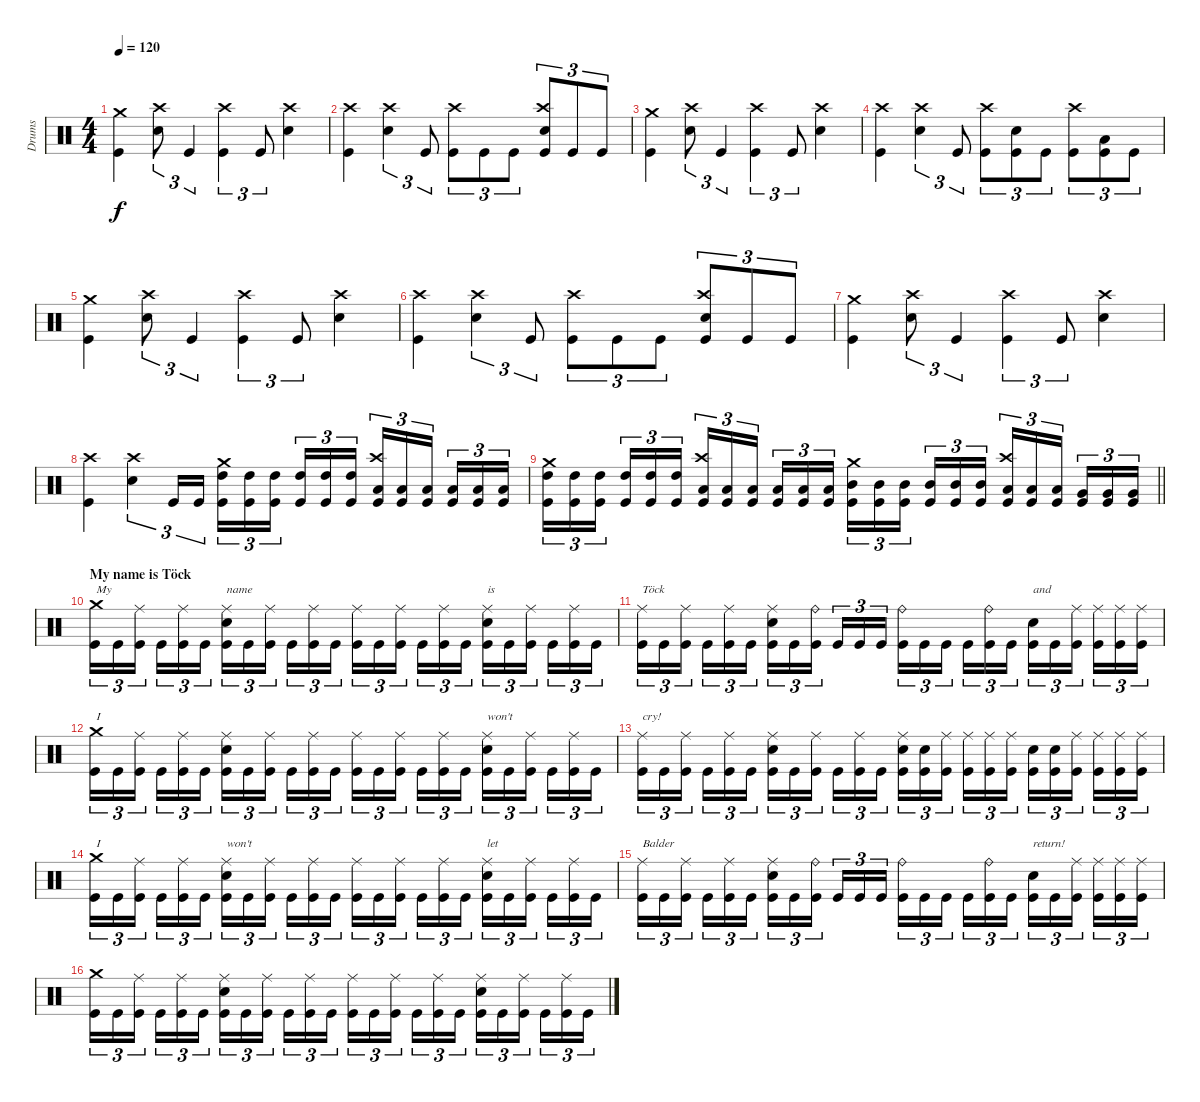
\track ("Drums" "Drums") {instrument percussion}
\staff {score}
\articulation defaults
\ts (4 4)
\tempo 120
\clef neutral
\ks c
("Crash medium (hit)" "Kick (hit)").4{dy f} ("Crash high (hit)" "Snare (hit) 2").8{tu (3 2)} "Kick (hit)".4{tu (3 2)} ("Crash high (hit)" "Kick (hit)").4{tu (3 2)} "Kick (hit)".8{tu (3 2)} ("Crash high (hit)" "Snare (hit) 2").4 |
("Crash high (hit)" "Kick (hit)").4 ("Crash high (hit)" "Snare (hit) 2").4{tu (3 2)} "Kick (hit)".8{tu (3 2)} ("Crash high (hit)" "Kick (hit)").8{tu (3 2)} "Kick (hit)".8{tu (3 2)} "Kick (hit)".8{tu (3 2)} ("Crash high (hit)" "Snare (hit) 2" "Kick (hit)").8{tu (3 2)} "Kick (hit)".8{tu (3 2)} "Kick (hit)".8{tu (3 2)} |
("Crash medium (hit)" "Kick (hit)").4 ("Crash high (hit)" "Snare (hit) 2").8{tu (3 2)} "Kick (hit)".4{tu (3 2)} ("Crash high (hit)" "Kick (hit)").4{tu (3 2)} "Kick (hit)".8{tu (3 2)} ("Crash high (hit)" "Snare (hit) 2").4 |
("Crash high (hit)" "Kick (hit)").4 ("Crash high (hit)" "Snare (hit) 2").4{tu (3 2)} "Kick (hit)".8{tu (3 2)} ("Crash high (hit)" "Kick (hit)").8{tu (3 2)} ("Snare (hit) 2" "Kick (hit)").8{tu (3 2)} "Kick (hit)".8{tu (3 2)} ("Crash high (hit)" "Kick (hit)").8{tu (3 2)} ("Low Tom (hit)" "Kick (hit)").8{tu (3 2)} "Kick (hit)".8{tu (3 2)} |
("Crash medium (hit)" "Kick (hit)").4 ("Crash high (hit)" "Snare (hit) 2").8{tu (3 2)} "Kick (hit)".4{tu (3 2)} ("Crash high (hit)" "Kick (hit)").4{tu (3 2)} "Kick (hit)".8{tu (3 2)} ("Crash high (hit)" "Snare (hit) 2").4 |
("Crash high (hit)" "Kick (hit)").4 ("Crash high (hit)" "Snare (hit) 2").4{tu (3 2)} "Kick (hit)".8{tu (3 2)} ("Crash high (hit)" "Kick (hit)").8{tu (3 2)} "Kick (hit)".8{tu (3 2)} "Kick (hit)".8{tu (3 2)} ("Crash high (hit)" "Snare (hit) 2" "Kick (hit)").8{tu (3 2)} "Kick (hit)".8{tu (3 2)} "Kick (hit)".8{tu (3 2)} |
("Crash medium (hit)" "Kick (hit)").4 ("Crash high (hit)" "Snare (hit) 2").8{tu (3 2)} "Kick (hit)".4{tu (3 2)} ("Crash high (hit)" "Kick (hit)").4{tu (3 2)} "Kick (hit)".8{tu (3 2)} ("Crash high (hit)" "Snare (hit) 2").4 |
("Crash high (hit)" "Kick (hit)").4 ("Crash high (hit)" "Snare (hit) 2").4{tu (3 2)} "Kick (hit)".16{tu (3 2)} "Kick (hit)".16{tu (3 2)} ("Crash medium (hit)" "High Tom (hit)" "Kick (hit)").16{tu (3 2)} ("High Tom (hit)" "Kick (hit)").16{tu (3 2)} ("High Tom (hit)" "Kick (hit)").16{tu (3 2) beam splitsecondary} ("High Tom (hit)" "Kick (hit)").16{tu (3 2)} ("High Tom (hit)" "Kick (hit)").16{tu (3 2)} ("High Tom (hit)" "Kick (hit)").16{tu (3 2)} ("Crash high (hit)" "Low Tom (hit)" "Kick (hit)").16{tu (3 2)} ("Low Tom (hit)" "Kick (hit)").16{tu (3 2)} ("Low Tom (hit)" "Kick (hit)").16{tu (3 2) beam splitsecondary} ("Low Tom (hit)" "Kick (hit)").16{tu (3 2)} ("Low Tom (hit)" "Kick (hit)").16{tu (3 2)} ("Low Tom (hit)" "Kick (hit)").16{tu (3 2)} |
\barLineRight lightlight
("Crash medium (hit)" "High Tom (hit)" "Kick (hit)").16{tu (3 2)} ("High Tom (hit)" "Kick (hit)").16{tu (3 2)} ("High Tom (hit)" "Kick (hit)").16{tu (3 2) beam splitsecondary} ("High Tom (hit)" "Kick (hit)").16{tu (3 2)} ("High Tom (hit)" "Kick (hit)").16{tu (3 2)} ("High Tom (hit)" "Kick (hit)").16{tu (3 2)} ("Crash high (hit)" "Low Tom (hit)" "Kick (hit)").16{tu (3 2)} ("Low Tom (hit)" "Kick (hit)").16{tu (3 2)} ("Low Tom (hit)" "Kick (hit)").16{tu (3 2) beam splitsecondary} ("Low Tom (hit)" "Kick (hit)").16{tu (3 2)} ("Low Tom (hit)" "Kick (hit)").16{tu (3 2)} ("Low Tom (hit)" "Kick (hit)").16{tu (3 2)} ("Crash medium (hit)" "Mid Tom (hit)" "Kick (hit)").16{tu (3 2)} ("Mid Tom (hit)" "Kick (hit)").16{tu (3 2)} ("Mid Tom (hit)" "Kick (hit)").16{tu (3 2) beam splitsecondary} ("Mid Tom (hit)" "Kick (hit)").16{tu (3 2)} ("Mid Tom (hit)" "Kick (hit)").16{tu (3 2)} ("Mid Tom (hit)" "Kick (hit)").16{tu (3 2)} ("Crash high (hit)" "Low Tom (hit)" "Kick (hit)").16{tu (3 2)} ("Low Tom (hit)" "Kick (hit)").16{tu (3 2)} ("Low Tom (hit)" "Kick (hit)").16{tu (3 2) beam splitsecondary} ("Very Low Tom (hit)" "Kick (hit)").16{tu (3 2)} ("Very Low Tom (hit)" "Kick (hit)").16{tu (3 2)} ("Very Low Tom (hit)" "Kick (hit)").16{tu (3 2)} |
\section ("" "My name is Töck")
("Crash medium (hit)" "Kick (hit)").16{tu (3 2) txt "My"} "Kick (hit)".16{tu (3 2)} ("Ride (middle)" "Kick (hit)").16{tu (3 2) beam splitsecondary} "Kick (hit)".16{tu (3 2)} ("Ride (middle)" "Kick (hit)").16{tu (3 2)} "Kick (hit)".16{tu (3 2)} ("Ride (middle)" "Snare (hit) 2" "Kick (hit)").16{tu (3 2) txt "name"} "Kick (hit)".16{tu (3 2)} ("Ride (middle)" "Kick (hit)").16{tu (3 2) beam splitsecondary} "Kick (hit)".16{tu (3 2)} ("Ride (middle)" "Kick (hit)").16{tu (3 2)} "Kick (hit)".16{tu (3 2)} ("Ride (middle)" "Kick (hit)").16{tu (3 2)} "Kick (hit)".16{tu (3 2)} ("Ride (middle)" "Kick (hit)").16{tu (3 2) beam splitsecondary} "Kick (hit)".16{tu (3 2)} ("Ride (middle)" "Kick (hit)").16{tu (3 2)} "Kick (hit)".16{tu (3 2)} ("Ride (middle)" "Snare (hit) 2" "Kick (hit)").16{tu (3 2) txt "is"} "Kick (hit)".16{tu (3 2)} ("Ride (middle)" "Kick (hit)").16{tu (3 2) beam splitsecondary} "Kick (hit)".16{tu (3 2)} ("Ride (middle)" "Kick (hit)").16{tu (3 2)} "Kick (hit)".16{tu (3 2)} |
("Ride (middle)" "Kick (hit)").16{tu (3 2) txt "Töck"} "Kick (hit)".16{tu (3 2)} ("Ride (middle)" "Kick (hit)").16{tu (3 2) beam splitsecondary} "Kick (hit)".16{tu (3 2)} ("Ride (middle)" "Kick (hit)").16{tu (3 2)} "Kick (hit)".16{tu (3 2)} ("Ride (middle)" "Snare (hit) 2" "Kick (hit)").16{tu (3 2)} "Kick (hit)".16{tu (3 2)} ("Ride (bell)" "Kick (hit)").16{tu (3 2) beam splitsecondary} "Kick (hit)".16{tu (3 2)} "Kick (hit)".16{tu (3 2)} "Kick (hit)".16{tu (3 2)} ("Ride (bell)" "Kick (hit)").16{tu (3 2)} "Kick (hit)".16{tu (3 2)} "Kick (hit)".16{tu (3 2) beam splitsecondary} "Kick (hit)".16{tu (3 2)} ("Ride (bell)" "Kick (hit)").16{tu (3 2)} "Kick (hit)".16{tu (3 2)} ("Snare (hit) 2" "Kick (hit)").16{tu (3 2) txt "and"} "Kick (hit)".16{tu (3 2)} ("Ride (middle)" "Kick (hit)").16{tu (3 2) beam splitsecondary} ("Ride (middle)" "Kick (hit)").16{tu (3 2)} ("Ride (middle)" "Kick (hit)").16{tu (3 2)} ("Ride (middle)" "Kick (hit)").16{tu (3 2)} |
("Crash medium (hit)" "Kick (hit)").16{tu (3 2) txt "I"} "Kick (hit)".16{tu (3 2)} ("Ride (middle)" "Kick (hit)").16{tu (3 2) beam splitsecondary} "Kick (hit)".16{tu (3 2)} ("Ride (middle)" "Kick (hit)").16{tu (3 2)} "Kick (hit)".16{tu (3 2)} ("Ride (middle)" "Snare (hit) 2" "Kick (hit)").16{tu (3 2)} "Kick (hit)".16{tu (3 2)} ("Ride (middle)" "Kick (hit)").16{tu (3 2) beam splitsecondary} "Kick (hit)".16{tu (3 2)} ("Ride (middle)" "Kick (hit)").16{tu (3 2)} "Kick (hit)".16{tu (3 2)} ("Ride (middle)" "Kick (hit)").16{tu (3 2)} "Kick (hit)".16{tu (3 2)} ("Ride (middle)" "Kick (hit)").16{tu (3 2) beam splitsecondary} "Kick (hit)".16{tu (3 2)} ("Ride (middle)" "Kick (hit)").16{tu (3 2)} "Kick (hit)".16{tu (3 2)} ("Ride (middle)" "Snare (hit) 2" "Kick (hit)").16{tu (3 2) txt "won't"} "Kick (hit)".16{tu (3 2)} ("Ride (middle)" "Kick (hit)").16{tu (3 2) beam splitsecondary} "Kick (hit)".16{tu (3 2)} ("Ride (middle)" "Kick (hit)").16{tu (3 2)} "Kick (hit)".16{tu (3 2)} |
("Ride (middle)" "Kick (hit)").16{tu (3 2) txt "cry!"} "Kick (hit)".16{tu (3 2)} ("Ride (middle)" "Kick (hit)").16{tu (3 2) beam splitsecondary} "Kick (hit)".16{tu (3 2)} ("Ride (middle)" "Kick (hit)").16{tu (3 2)} "Kick (hit)".16{tu (3 2)} ("Ride (middle)" "Snare (hit) 2" "Kick (hit)").16{tu (3 2)} "Kick (hit)".16{tu (3 2)} ("Ride (middle)" "Kick (hit)").16{tu (3 2) beam splitsecondary} "Kick (hit)".16{tu (3 2)} ("Ride (middle)" "Kick (hit)").16{tu (3 2)} "Kick (hit)".16{tu (3 2)} ("Ride (middle)" "Snare (hit) 2" "Kick (hit)").16{tu (3 2)} ("Snare (hit) 2" "Kick (hit)").16{tu (3 2)} ("Ride (middle)" "Kick (hit)").16{tu (3 2) beam splitsecondary} ("Ride (middle)" "Kick (hit)").16{tu (3 2)} ("Ride (middle)" "Kick (hit)").16{tu (3 2)} ("Ride (middle)" "Kick (hit)").16{tu (3 2)} ("Snare (hit) 2" "Kick (hit)").16{tu (3 2)} ("Snare (hit) 2" "Kick (hit)").16{tu (3 2)} ("Ride (middle)" "Kick (hit)").16{tu (3 2) beam splitsecondary} ("Ride (middle)" "Kick (hit)").16{tu (3 2)} ("Ride (middle)" "Kick (hit)").16{tu (3 2)} ("Ride (middle)" "Kick (hit)").16{tu (3 2)} |
("Crash medium (hit)" "Kick (hit)").16{tu (3 2) txt "I"} "Kick (hit)".16{tu (3 2)} ("Ride (middle)" "Kick (hit)").16{tu (3 2) beam splitsecondary} "Kick (hit)".16{tu (3 2)} ("Ride (middle)" "Kick (hit)").16{tu (3 2)} "Kick (hit)".16{tu (3 2)} ("Ride (middle)" "Snare (hit) 2" "Kick (hit)").16{tu (3 2) txt "won't"} "Kick (hit)".16{tu (3 2)} ("Ride (middle)" "Kick (hit)").16{tu (3 2) beam splitsecondary} "Kick (hit)".16{tu (3 2)} ("Ride (middle)" "Kick (hit)").16{tu (3 2)} "Kick (hit)".16{tu (3 2)} ("Ride (middle)" "Kick (hit)").16{tu (3 2)} "Kick (hit)".16{tu (3 2)} ("Ride (middle)" "Kick (hit)").16{tu (3 2) beam splitsecondary} "Kick (hit)".16{tu (3 2)} ("Ride (middle)" "Kick (hit)").16{tu (3 2)} "Kick (hit)".16{tu (3 2)} ("Ride (middle)" "Snare (hit) 2" "Kick (hit)").16{tu (3 2) txt "let"} "Kick (hit)".16{tu (3 2)} ("Ride (middle)" "Kick (hit)").16{tu (3 2) beam splitsecondary} "Kick (hit)".16{tu (3 2)} ("Ride (middle)" "Kick (hit)").16{tu (3 2)} "Kick (hit)".16{tu (3 2)} |
("Ride (middle)" "Kick (hit)").16{tu (3 2) txt "Balder"} "Kick (hit)".16{tu (3 2)} ("Ride (middle)" "Kick (hit)").16{tu (3 2) beam splitsecondary} "Kick (hit)".16{tu (3 2)} ("Ride (middle)" "Kick (hit)").16{tu (3 2)} "Kick (hit)".16{tu (3 2)} ("Ride (middle)" "Snare (hit) 2" "Kick (hit)").16{tu (3 2)} "Kick (hit)".16{tu (3 2)} ("Ride (bell)" "Kick (hit)").16{tu (3 2) beam splitsecondary} "Kick (hit)".16{tu (3 2)} "Kick (hit)".16{tu (3 2)} "Kick (hit)".16{tu (3 2)} ("Ride (bell)" "Kick (hit)").16{tu (3 2)} "Kick (hit)".16{tu (3 2)} "Kick (hit)".16{tu (3 2) beam splitsecondary} "Kick (hit)".16{tu (3 2)} ("Ride (bell)" "Kick (hit)").16{tu (3 2)} "Kick (hit)".16{tu (3 2)} ("Snare (hit) 2" "Kick (hit)").16{tu (3 2) txt "return!"} "Kick (hit)".16{tu (3 2)} ("Ride (middle)" "Kick (hit)").16{tu (3 2) beam splitsecondary} ("Ride (middle)" "Kick (hit)").16{tu (3 2)} ("Ride (middle)" "Kick (hit)").16{tu (3 2)} ("Ride (middle)" "Kick (hit)").16{tu (3 2)} |
("Crash medium (hit)" "Kick (hit)").16{tu (3 2)} "Kick (hit)".16{tu (3 2)} ("Ride (middle)" "Kick (hit)").16{tu (3 2) beam splitsecondary} "Kick (hit)".16{tu (3 2)} ("Ride (middle)" "Kick (hit)").16{tu (3 2)} "Kick (hit)".16{tu (3 2)} ("Ride (middle)" "Snare (hit) 2" "Kick (hit)").16{tu (3 2)} "Kick (hit)".16{tu (3 2)} ("Ride (middle)" "Kick (hit)").16{tu (3 2) beam splitsecondary} "Kick (hit)".16{tu (3 2)} ("Ride (middle)" "Kick (hit)").16{tu (3 2)} "Kick (hit)".16{tu (3 2)} ("Ride (middle)" "Kick (hit)").16{tu (3 2)} "Kick (hit)".16{tu (3 2)} ("Ride (middle)" "Kick (hit)").16{tu (3 2) beam splitsecondary} "Kick (hit)".16{tu (3 2)} ("Ride (middle)" "Kick (hit)").16{tu (3 2)} "Kick (hit)".16{tu (3 2)} ("Ride (middle)" "Snare (hit) 2" "Kick (hit)").16{tu (3 2)} "Kick (hit)".16{tu (3 2)} ("Ride (middle)" "Kick (hit)").16{tu (3 2) beam splitsecondary} "Kick (hit)".16{tu (3 2)} ("Ride (middle)" "Kick (hit)").16{tu (3 2)} "Kick (hit)".16{tu (3 2)}
